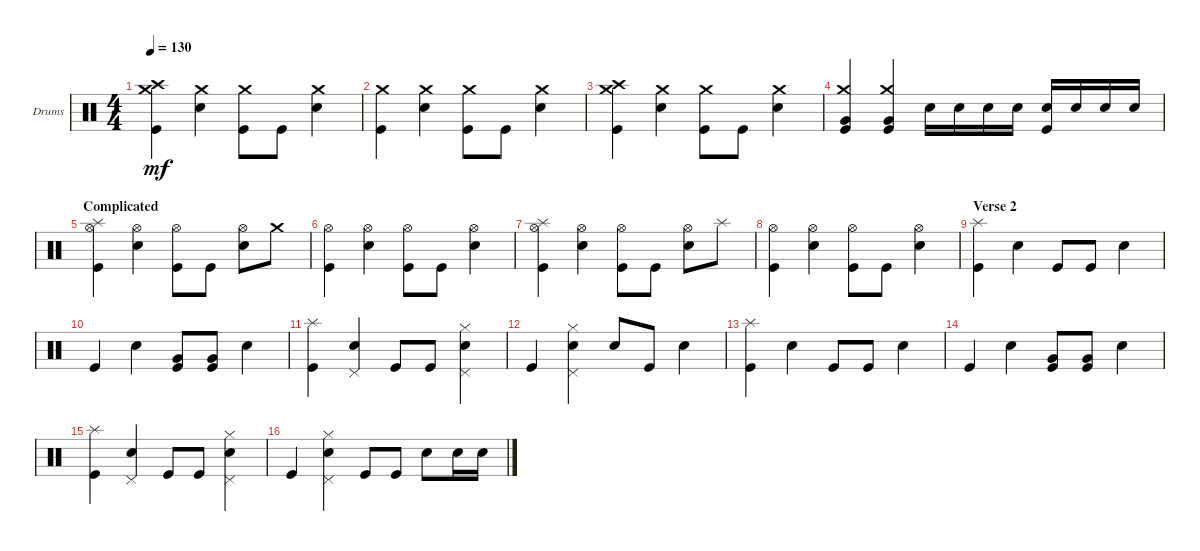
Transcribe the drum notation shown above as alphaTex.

\defaultSystemsLayout 4
\bracketExtendMode groupsimilarinstruments
\firstSystemTrackNameOrientation horizontal
\otherSystemsTrackNameOrientation horizontal
\track ("Drums" "Drums") {instrument percussion}
\staff {score}
\articulation defaults
\ts (4 4)
\tempo 130
\clef neutral
\ks c
("Kick (hit)" "Crash medium (hit)" "Crash high (hit)").4{dy mf} ("Snare (hit) 2" "Crash medium (hit)").4 ("Kick (hit)" "Crash medium (hit)").8 "Kick (hit)".8 ("Snare (hit) 2" "Crash medium (hit)").4 |
("Kick (hit)" "Crash medium (hit)").4 ("Snare (hit) 2" "Crash medium (hit)").4 ("Kick (hit)" "Crash medium (hit)").8 "Kick (hit)".8 ("Snare (hit) 2" "Crash medium (hit)").4 |
("Kick (hit)" "Crash medium (hit)" "Crash high (hit)").4 ("Snare (hit) 2" "Crash medium (hit)").4 ("Kick (hit)" "Crash medium (hit)").8 "Kick (hit)".8 ("Snare (hit) 2" "Crash medium (hit)").4 |
("Kick (hit)" "Very Low Tom (hit)" "Crash medium (hit)").4 ("Kick (hit)" "Very Low Tom (hit)" "Crash medium (hit)").4 "Snare (hit) 2".16 "Snare (hit) 2".16 "Snare (hit) 2".16 "Snare (hit) 2".16 ("Snare (hit) 2" "Kick (hit)").16 "Snare (hit) 2".16 "Snare (hit) 2".16 "Snare (hit) 2".16 |
\section ("" "Complicated")
("Kick (hit)" "Splash (hit)" "Hi-Hat (open)").4 ("Snare (hit) 2" "Hi-Hat (open)").4 ("Kick (hit)" "Hi-Hat (open)").8 "Kick (hit)".8 ("Snare (hit) 2" "Hi-Hat (open)").8 "Crash medium (hit)".8 |
("Kick (hit)" "Hi-Hat (open)").4 ("Snare (hit) 2" "Hi-Hat (open)").4 ("Kick (hit)" "Hi-Hat (open)").8 "Kick (hit)".8 ("Snare (hit) 2" "Hi-Hat (open)").4 |
("Kick (hit)" "Splash (hit)" "Hi-Hat (open)").4 ("Snare (hit) 2" "Hi-Hat (open)").4 ("Kick (hit)" "Hi-Hat (open)").8 "Kick (hit)".8 ("Snare (hit) 2" "Hi-Hat (open)").8 "Splash (hit)".8 |
("Kick (hit)" "Hi-Hat (open)").4 ("Snare (hit) 2" "Hi-Hat (open)").4 ("Kick (hit)" "Hi-Hat (open)").8 "Kick (hit)".8 ("Snare (hit) 2" "Hi-Hat (open)").4 |
\section ("" "Verse 2")
("Kick (hit)" "Splash (hit)").4 "Snare (hit) 2".4 "Kick (hit)".8 "Kick (hit)".8 "Snare (hit) 2".4 |
"Kick (hit)".4 "Snare (hit) 2".4 ("Kick (hit)" "Very Low Tom (hit)").8 ("Kick (hit)" "Very Low Tom (hit)").8 "Snare (hit) 2".4 |
("Kick (hit)" "Splash (hit)").4 ("Snare (hit) 2" "Pedal Hi-Hat (hit)").4 "Kick (hit)".8 "Kick (hit)".8 ("Snare (hit) 2" "Hi-Hat (closed)" "Pedal Hi-Hat (hit)").4 |
"Kick (hit)".4 ("Snare (hit) 2" "Hi-Hat (closed)" "Pedal Hi-Hat (hit)").4 "Snare (hit) 2".8 "Kick (hit)".8 "Snare (hit) 2".4 |
("Kick (hit)" "Splash (hit)").4 "Snare (hit) 2".4 "Kick (hit)".8 "Kick (hit)".8 "Snare (hit) 2".4 |
"Kick (hit)".4 "Snare (hit) 2".4 ("Kick (hit)" "Very Low Tom (hit)").8 ("Kick (hit)" "Very Low Tom (hit)").8 "Snare (hit) 2".4 |
("Kick (hit)" "Splash (hit)").4 ("Snare (hit) 2" "Pedal Hi-Hat (hit)").4 "Kick (hit)".8 "Kick (hit)".8 ("Snare (hit) 2" "Hi-Hat (closed)" "Pedal Hi-Hat (hit)").4 |
"Kick (hit)".4 ("Snare (hit) 2" "Hi-Hat (closed)" "Pedal Hi-Hat (hit)").4 "Kick (hit)".8 "Kick (hit)".8 "Snare (hit) 2".8 "Snare (hit) 2".16 "Snare (hit) 2".16
